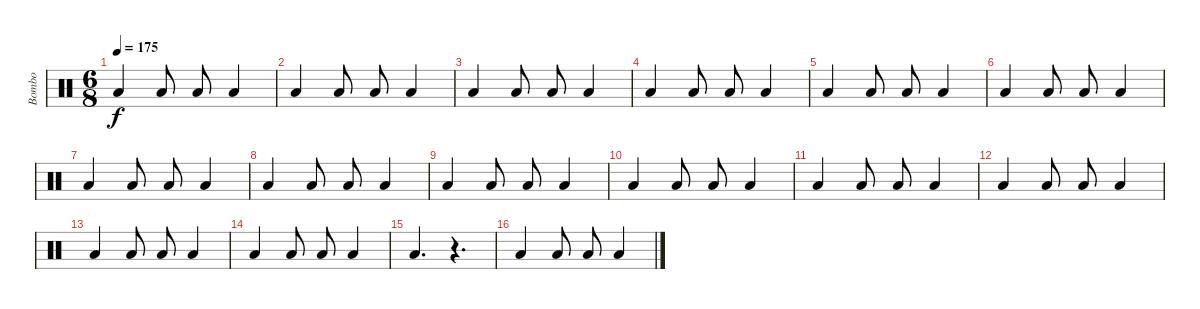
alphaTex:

\track ("Bombo" "Bombo") {instrument percussion}
\staff {score}
\articulation defaults
\ts (6 8)
\tempo 175
\clef neutral
\ks c "Low Floor Tom (hit)".4{dy f} "Low Floor Tom (hit)".8 "Low Floor Tom (hit)".8 "Low Floor Tom (hit)".4
|
"Low Floor Tom (hit)".4 "Low Floor Tom (hit)".8 "Low Floor Tom (hit)".8 "Low Floor Tom (hit)".4 |
"Low Floor Tom (hit)".4 "Low Floor Tom (hit)".8 "Low Floor Tom (hit)".8 "Low Floor Tom (hit)".4 |
"Low Floor Tom (hit)".4 "Low Floor Tom (hit)".8 "Low Floor Tom (hit)".8 "Low Floor Tom (hit)".4 |
"Low Floor Tom (hit)".4 "Low Floor Tom (hit)".8 "Low Floor Tom (hit)".8 "Low Floor Tom (hit)".4 |
"Low Floor Tom (hit)".4 "Low Floor Tom (hit)".8 "Low Floor Tom (hit)".8 "Low Floor Tom (hit)".4 |
"Low Floor Tom (hit)".4 "Low Floor Tom (hit)".8 "Low Floor Tom (hit)".8 "Low Floor Tom (hit)".4 |
"Low Floor Tom (hit)".4 "Low Floor Tom (hit)".8 "Low Floor Tom (hit)".8 "Low Floor Tom (hit)".4 |
"Low Floor Tom (hit)".4 "Low Floor Tom (hit)".8 "Low Floor Tom (hit)".8 "Low Floor Tom (hit)".4 |
"Low Floor Tom (hit)".4 "Low Floor Tom (hit)".8 "Low Floor Tom (hit)".8 "Low Floor Tom (hit)".4 |
"Low Floor Tom (hit)".4 "Low Floor Tom (hit)".8 "Low Floor Tom (hit)".8 "Low Floor Tom (hit)".4 |
"Low Floor Tom (hit)".4 "Low Floor Tom (hit)".8 "Low Floor Tom (hit)".8 "Low Floor Tom (hit)".4 |
"Low Floor Tom (hit)".4 "Low Floor Tom (hit)".8 "Low Floor Tom (hit)".8 "Low Floor Tom (hit)".4 |
"Low Floor Tom (hit)".4 "Low Floor Tom (hit)".8 "Low Floor Tom (hit)".8 "Low Floor Tom (hit)".4 |
"Low Floor Tom (hit)".4{d} r.4{d} |
"Low Floor Tom (hit)".4 "Low Floor Tom (hit)".8 "Low Floor Tom (hit)".8 "Low Floor Tom (hit)".4
